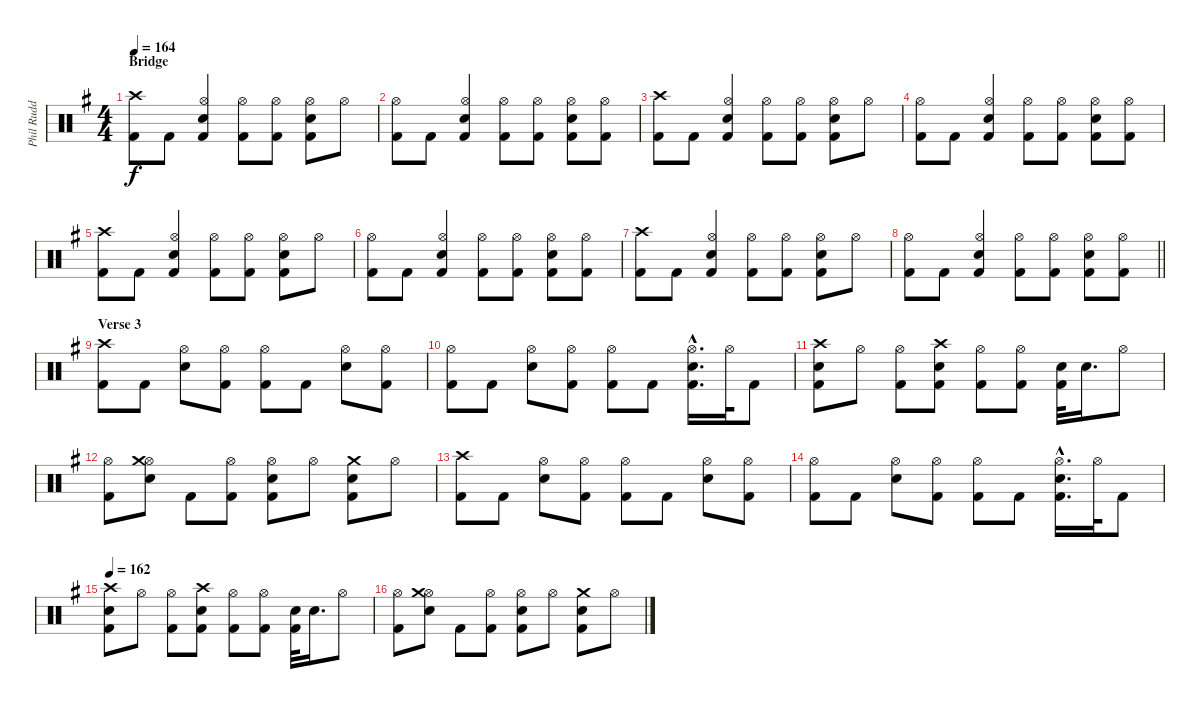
\track ("Phil Rudd" "Phil Rudd") {instrument percussion}
\staff {score}
\articulation defaults
\ts (4 4)
\section ("" "Bridge")
\tempo 164
\clef neutral
\ks g
("Crash high (hit)" "Kick (hit) 2").8{dy f} "Kick (hit) 2".8 ("Kick (hit) 2" "Hi-Hat (open)" "Snare (hit) 2").4 ("Hi-Hat (open)" "Kick (hit) 2").8 ("Kick (hit) 2" "Hi-Hat (open)").8 ("Kick (hit) 2" "Hi-Hat (open)" "Snare (hit) 2").8 "Hi-Hat (open)".8 |
("Kick (hit) 2" "Hi-Hat (open)").8 "Kick (hit) 2".8 ("Kick (hit) 2" "Snare (hit) 2" "Hi-Hat (open)").4 ("Kick (hit) 2" "Hi-Hat (open)").8 ("Kick (hit) 2" "Hi-Hat (open)").8 ("Kick (hit) 2" "Snare (hit) 2" "Hi-Hat (open)").8 ("Kick (hit) 2" "Hi-Hat (open)").8 |
("Crash high (hit)" "Kick (hit) 2").8 "Kick (hit) 2".8 ("Kick (hit) 2" "Hi-Hat (open)" "Snare (hit) 2").4 ("Hi-Hat (open)" "Kick (hit) 2").8 ("Kick (hit) 2" "Hi-Hat (open)").8 ("Kick (hit) 2" "Hi-Hat (open)" "Snare (hit) 2").8 "Hi-Hat (open)".8 |
("Kick (hit) 2" "Hi-Hat (open)").8 "Kick (hit) 2".8 ("Kick (hit) 2" "Snare (hit) 2" "Hi-Hat (open)").4 ("Kick (hit) 2" "Hi-Hat (open)").8 ("Kick (hit) 2" "Hi-Hat (open)").8 ("Kick (hit) 2" "Snare (hit) 2" "Hi-Hat (open)").8 ("Kick (hit) 2" "Hi-Hat (open)").8 |
("Crash high (hit)" "Kick (hit) 2").8 "Kick (hit) 2".8 ("Kick (hit) 2" "Hi-Hat (open)" "Snare (hit) 2").4 ("Hi-Hat (open)" "Kick (hit) 2").8 ("Kick (hit) 2" "Hi-Hat (open)").8 ("Kick (hit) 2" "Hi-Hat (open)" "Snare (hit) 2").8 "Hi-Hat (open)".8 |
("Kick (hit) 2" "Hi-Hat (open)").8 "Kick (hit) 2".8 ("Kick (hit) 2" "Snare (hit) 2" "Hi-Hat (open)").4 ("Kick (hit) 2" "Hi-Hat (open)").8 ("Kick (hit) 2" "Hi-Hat (open)").8 ("Kick (hit) 2" "Snare (hit) 2" "Hi-Hat (open)").8 ("Kick (hit) 2" "Hi-Hat (open)").8 |
("Crash high (hit)" "Kick (hit) 2").8 "Kick (hit) 2".8 ("Kick (hit) 2" "Hi-Hat (open)" "Snare (hit) 2").4 ("Hi-Hat (open)" "Kick (hit) 2").8 ("Kick (hit) 2" "Hi-Hat (open)").8 ("Kick (hit) 2" "Hi-Hat (open)" "Snare (hit) 2").8 "Hi-Hat (open)".8 |
\barLineRight lightlight
("Kick (hit) 2" "Hi-Hat (open)").8 "Kick (hit) 2".8 ("Kick (hit) 2" "Snare (hit) 2" "Hi-Hat (open)").4 ("Kick (hit) 2" "Hi-Hat (open)").8 ("Kick (hit) 2" "Hi-Hat (open)").8 ("Kick (hit) 2" "Snare (hit) 2" "Hi-Hat (open)").8 ("Kick (hit) 2" "Hi-Hat (open)").8 |
\section ("" "Verse 3")
("Crash high (hit)" "Kick (hit) 2").8 "Kick (hit) 2".8 ("Hi-Hat (open)" "Snare (hit) 2").8 ("Kick (hit) 2" "Hi-Hat (open)").8 ("Hi-Hat (open)" "Kick (hit) 2").8 "Kick (hit) 2".8 ("Hi-Hat (open)" "Snare (hit) 2").8 ("Hi-Hat (open)" "Kick (hit) 2").8 |
("Hi-Hat (open)" "Kick (hit) 2").8 "Kick (hit) 2".8 ("Hi-Hat (open)" "Snare (hit) 2").8 ("Hi-Hat (open)" "Kick (hit) 2").8 ("Hi-Hat (open)" "Kick (hit) 2").8 "Kick (hit) 2".8 ("Kick (hit) 2" "Hi-Hat (open)"{hac} "Snare (hit) 2").16{d} "Hi-Hat (open)".32 "Kick (hit) 2".8 |
("Crash high (hit)" "Snare (hit) 2" "Kick (hit) 2").8 "Hi-Hat (open)".8 ("Hi-Hat (open)" "Kick (hit) 2").8 ("Crash high (hit)" "Snare (hit) 2" "Kick (hit) 2").8 ("Hi-Hat (open)" "Kick (hit) 2").8 ("Kick (hit) 2" "Hi-Hat (open)").8 ("Snare (hit) 2" "Kick (hit) 2").32 "Snare (hit) 2".16{d} "Hi-Hat (open)".8 |
("Kick (hit) 2" "Hi-Hat (open)").8 ("Hi-Hat (open)" "Crash medium (hit)" "Snare (hit) 2").8 "Kick (hit) 2".8 ("Kick (hit) 2" "Hi-Hat (open)").8 ("Hi-Hat (open)" "Kick (hit) 2" "Snare (hit) 2").8 "Hi-Hat (open)".8 ("Snare (hit) 2" "Kick (hit) 2" "Crash medium (hit)").8 "Hi-Hat (open)".8 |
("Crash high (hit)" "Kick (hit) 2").8 "Kick (hit) 2".8 ("Hi-Hat (open)" "Snare (hit) 2").8 ("Kick (hit) 2" "Hi-Hat (open)").8 ("Hi-Hat (open)" "Kick (hit) 2").8 "Kick (hit) 2".8 ("Hi-Hat (open)" "Snare (hit) 2").8 ("Hi-Hat (open)" "Kick (hit) 2").8 |
("Hi-Hat (open)" "Kick (hit) 2").8 "Kick (hit) 2".8 ("Hi-Hat (open)" "Snare (hit) 2").8 ("Hi-Hat (open)" "Kick (hit) 2").8 ("Hi-Hat (open)" "Kick (hit) 2").8 "Kick (hit) 2".8 ("Kick (hit) 2" "Hi-Hat (open)"{hac} "Snare (hit) 2").16{d} "Hi-Hat (open)".32 "Kick (hit) 2".8 |
\tempo 162
("Crash high (hit)" "Snare (hit) 2" "Kick (hit) 2").8 "Hi-Hat (open)".8 ("Hi-Hat (open)" "Kick (hit) 2").8 ("Crash high (hit)" "Snare (hit) 2" "Kick (hit) 2").8 ("Hi-Hat (open)" "Kick (hit) 2").8 ("Kick (hit) 2" "Hi-Hat (open)").8 ("Snare (hit) 2" "Kick (hit) 2").32 "Snare (hit) 2".16{d} "Hi-Hat (open)".8 |
("Kick (hit) 2" "Hi-Hat (open)").8 ("Hi-Hat (open)" "Crash medium (hit)" "Snare (hit) 2").8 "Kick (hit) 2".8 ("Kick (hit) 2" "Hi-Hat (open)").8 ("Hi-Hat (open)" "Kick (hit) 2" "Snare (hit) 2").8 "Hi-Hat (open)".8 ("Snare (hit) 2" "Kick (hit) 2" "Crash medium (hit)").8 "Hi-Hat (open)".8
